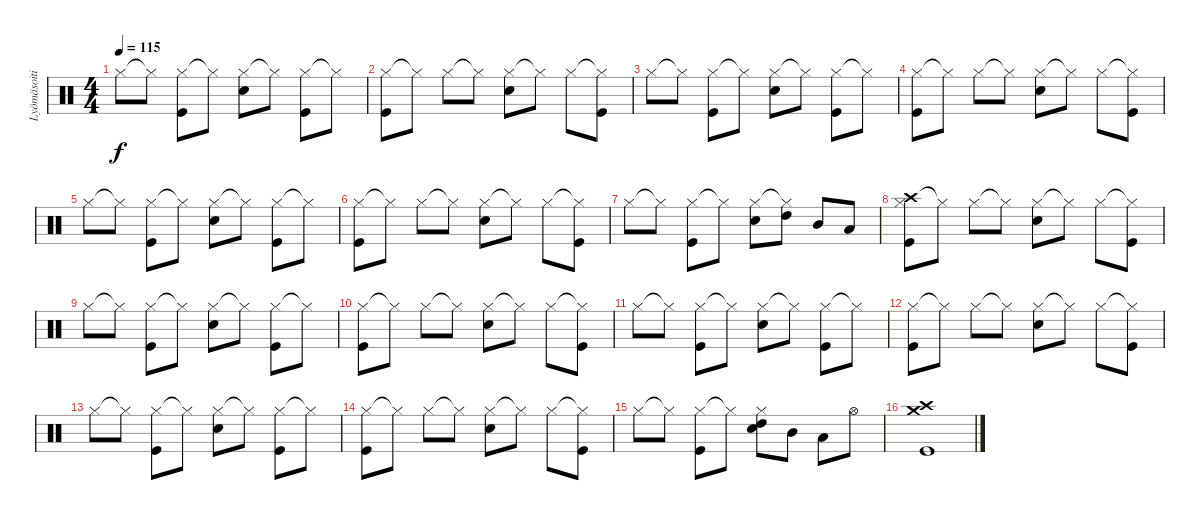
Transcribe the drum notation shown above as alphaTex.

\track ("Lyömäsoitin" "Lyömäsoiti") {instrument percussion}
\staff {score}
\articulation defaults
\ts (4 4)
\tempo 115
\clef neutral
\ks c "Hi-Hat (closed)".8{dy f} "Hi-Hat (closed)"{t}.8
("Hi-Hat (closed)" "Kick (hit)").8 "Hi-Hat (closed)"{t}.8 ("Hi-Hat (closed)" "Snare (hit) 2").8 "Hi-Hat (closed)"{t}.8 ("Hi-Hat (closed)" "Kick (hit)").8 "Hi-Hat (closed)"{t}.8 |
("Hi-Hat (closed)" "Kick (hit)").8 "Hi-Hat (closed)"{t}.8 "Hi-Hat (closed)".8 "Hi-Hat (closed)"{t}.8 ("Hi-Hat (closed)" "Snare (hit) 2").8 "Hi-Hat (closed)"{t}.8 "Hi-Hat (closed)".8 ("Hi-Hat (closed)"{t} "Kick (hit)").8 |
"Hi-Hat (closed)".8 "Hi-Hat (closed)"{t}.8 ("Hi-Hat (closed)" "Kick (hit)").8 "Hi-Hat (closed)"{t}.8 ("Hi-Hat (closed)" "Snare (hit) 2").8 "Hi-Hat (closed)"{t}.8 ("Hi-Hat (closed)" "Kick (hit)").8 "Hi-Hat (closed)"{t}.8 |
("Hi-Hat (closed)" "Kick (hit)").8 "Hi-Hat (closed)"{t}.8 "Hi-Hat (closed)".8 "Hi-Hat (closed)"{t}.8 ("Hi-Hat (closed)" "Snare (hit) 2").8 "Hi-Hat (closed)"{t}.8 "Hi-Hat (closed)".8 ("Hi-Hat (closed)"{t} "Kick (hit)").8 |
"Hi-Hat (closed)".8 "Hi-Hat (closed)"{t}.8 ("Hi-Hat (closed)" "Kick (hit)").8 "Hi-Hat (closed)"{t}.8 ("Hi-Hat (closed)" "Snare (hit) 2").8 "Hi-Hat (closed)"{t}.8 ("Hi-Hat (closed)" "Kick (hit)").8 "Hi-Hat (closed)"{t}.8 |
("Hi-Hat (closed)" "Kick (hit)").8 "Hi-Hat (closed)"{t}.8 "Hi-Hat (closed)".8 "Hi-Hat (closed)"{t}.8 ("Hi-Hat (closed)" "Snare (hit) 2").8 "Hi-Hat (closed)"{t}.8 "Hi-Hat (closed)".8 ("Hi-Hat (closed)"{t} "Kick (hit)").8 |
"Hi-Hat (closed)".8 "Hi-Hat (closed)"{t}.8 ("Hi-Hat (closed)" "Kick (hit)").8 "Hi-Hat (closed)"{t}.8 ("Hi-Hat (closed)" "Snare (hit) 2").8 ("Hi-Hat (closed)"{t} "High Tom (hit)").8 "Mid Tom (hit)".8 "Low Tom (hit)".8 |
("Crash high (hit)" "Hi-Hat (closed)" "Kick (hit)").8 "Hi-Hat (closed)"{t}.8 "Hi-Hat (closed)".8 "Hi-Hat (closed)"{t}.8 ("Hi-Hat (closed)" "Snare (hit) 2").8 "Hi-Hat (closed)"{t}.8 "Hi-Hat (closed)".8 ("Hi-Hat (closed)"{t} "Kick (hit)").8 |
"Hi-Hat (closed)".8 "Hi-Hat (closed)"{t}.8 ("Hi-Hat (closed)" "Kick (hit)").8 "Hi-Hat (closed)"{t}.8 ("Hi-Hat (closed)" "Snare (hit) 2").8 "Hi-Hat (closed)"{t}.8 ("Hi-Hat (closed)" "Kick (hit)").8 "Hi-Hat (closed)"{t}.8 |
("Hi-Hat (closed)" "Kick (hit)").8 "Hi-Hat (closed)"{t}.8 "Hi-Hat (closed)".8 "Hi-Hat (closed)"{t}.8 ("Hi-Hat (closed)" "Snare (hit) 2").8 "Hi-Hat (closed)"{t}.8 "Hi-Hat (closed)".8 ("Hi-Hat (closed)"{t} "Kick (hit)").8 |
"Hi-Hat (closed)".8 "Hi-Hat (closed)"{t}.8 ("Hi-Hat (closed)" "Kick (hit)").8 "Hi-Hat (closed)"{t}.8 ("Hi-Hat (closed)" "Snare (hit) 2").8 "Hi-Hat (closed)"{t}.8 ("Hi-Hat (closed)" "Kick (hit)").8 "Hi-Hat (closed)"{t}.8 |
("Hi-Hat (closed)" "Kick (hit)").8 "Hi-Hat (closed)"{t}.8 "Hi-Hat (closed)".8 "Hi-Hat (closed)"{t}.8 ("Hi-Hat (closed)" "Snare (hit) 2").8 "Hi-Hat (closed)"{t}.8 "Hi-Hat (closed)".8 ("Hi-Hat (closed)"{t} "Kick (hit)").8 |
"Hi-Hat (closed)".8 "Hi-Hat (closed)"{t}.8 ("Hi-Hat (closed)" "Kick (hit)").8 "Hi-Hat (closed)"{t}.8 ("Hi-Hat (closed)" "Snare (hit) 2").8 "Hi-Hat (closed)"{t}.8 ("Hi-Hat (closed)" "Kick (hit)").8 "Hi-Hat (closed)"{t}.8 |
("Hi-Hat (closed)" "Kick (hit)").8 "Hi-Hat (closed)"{t}.8 "Hi-Hat (closed)".8 "Hi-Hat (closed)"{t}.8 ("Hi-Hat (closed)" "Snare (hit) 2").8 "Hi-Hat (closed)"{t}.8 "Hi-Hat (closed)".8 ("Hi-Hat (closed)"{t} "Kick (hit)").8 |
"Hi-Hat (closed)".8 "Hi-Hat (closed)"{t}.8 ("Hi-Hat (closed)" "Kick (hit)").8 "Hi-Hat (closed)"{t}.8 ("Hi-Hat (closed)" "High Tom (hit)" "Snare (hit) 2").8 "Mid Tom (hit)".8 "Low Tom (hit)".8 "Hi-Hat (open)".8 |
("Crash high (hit)" "Crash medium (hit)" "Kick (hit)").1
